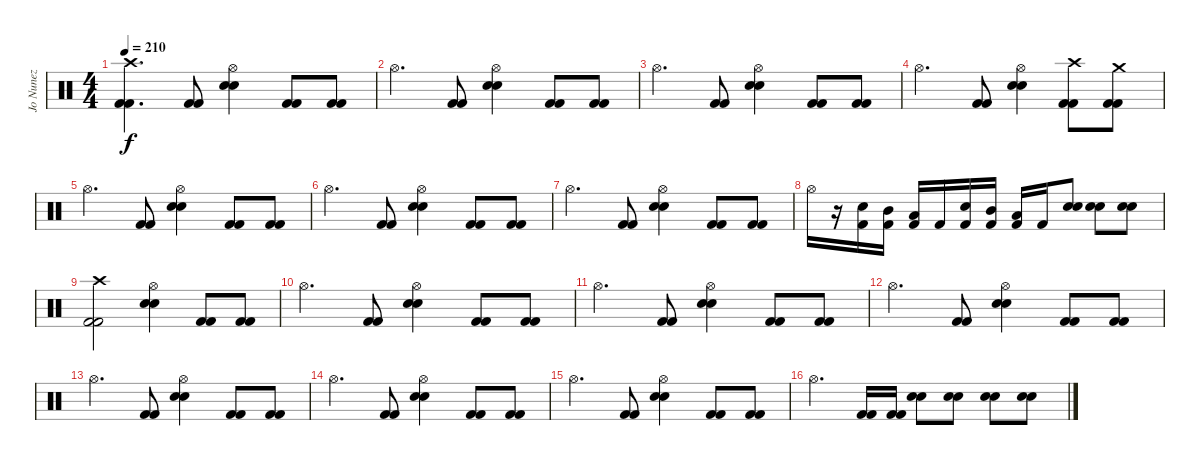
\track ("Jo Nunez" "Jo Nunez") {instrument percussion}
\staff {score}
\articulation defaults
\ts (4 4)
\tempo 210
\clef neutral
\ks c
("Kick (hit) 2" "Kick (hit) 2" "Crash high (hit)").4{d dy f} ("Kick (hit) 2" "Kick (hit) 2").8 ("Electric Snare (hit)" "Electric Snare (hit)" "Hi-Hat (open)").4 ("Kick (hit) 2" "Kick (hit) 2").8 ("Kick (hit) 2" "Kick (hit) 2").8 |
"Hi-Hat (open)".4{d} ("Kick (hit) 2" "Kick (hit) 2").8 ("Electric Snare (hit)" "Electric Snare (hit)" "Hi-Hat (open)").4 ("Kick (hit) 2" "Kick (hit) 2").8 ("Kick (hit) 2" "Kick (hit) 2").8 |
"Hi-Hat (open)".4{d} ("Kick (hit) 2" "Kick (hit) 2").8 ("Electric Snare (hit)" "Electric Snare (hit)" "Hi-Hat (open)").4 ("Kick (hit) 2" "Kick (hit) 2").8 ("Kick (hit) 2" "Kick (hit) 2").8 |
"Hi-Hat (open)".4{d} ("Kick (hit) 2" "Kick (hit) 2").8 ("Electric Snare (hit)" "Electric Snare (hit)" "Hi-Hat (open)").4 ("Kick (hit) 2" "Kick (hit) 2" "Crash high (hit)").8 ("Kick (hit) 2" "Kick (hit) 2" "Crash medium (hit)").8 |
"Hi-Hat (open)".4{d} ("Kick (hit) 2" "Kick (hit) 2").8 ("Electric Snare (hit)" "Electric Snare (hit)" "Hi-Hat (open)").4 ("Kick (hit) 2" "Kick (hit) 2").8 ("Kick (hit) 2" "Kick (hit) 2").8 |
"Hi-Hat (open)".4{d} ("Kick (hit) 2" "Kick (hit) 2").8 ("Electric Snare (hit)" "Electric Snare (hit)" "Hi-Hat (open)").4 ("Kick (hit) 2" "Kick (hit) 2").8 ("Kick (hit) 2" "Kick (hit) 2").8 |
"Hi-Hat (open)".4{d} ("Kick (hit) 2" "Kick (hit) 2").8 ("Electric Snare (hit)" "Electric Snare (hit)" "Hi-Hat (open)").4 ("Kick (hit) 2" "Kick (hit) 2").8 ("Kick (hit) 2" "Kick (hit) 2").8 |
"Hi-Hat (open)".16 r.16 ("Kick (hit) 2" "Electric Snare (hit)").16 ("Kick (hit) 2" "Mid Tom (hit)").16 ("Kick (hit) 2" "Low Tom (hit)").16 "Kick (hit) 2".16 ("Kick (hit) 2" "Electric Snare (hit)").16 ("Kick (hit) 2" "Mid Tom (hit)").16 ("Kick (hit) 2" "Low Tom (hit)").16 "Kick (hit) 2".16 ("Electric Snare (hit)" "Electric Snare (hit)").8 ("Electric Snare (hit)" "Electric Snare (hit)").8 ("Electric Snare (hit)" "Electric Snare (hit)").8 |
("Kick (hit) 2" "Kick (hit) 2" "Crash high (hit)").2 ("Electric Snare (hit)" "Electric Snare (hit)" "Hi-Hat (open)").4 ("Kick (hit) 2" "Kick (hit) 2").8 ("Kick (hit) 2" "Kick (hit) 2").8 |
"Hi-Hat (open)".4{d} ("Kick (hit) 2" "Kick (hit) 2").8 ("Electric Snare (hit)" "Electric Snare (hit)" "Hi-Hat (open)").4 ("Kick (hit) 2" "Kick (hit) 2").8 ("Kick (hit) 2" "Kick (hit) 2").8 |
"Hi-Hat (open)".4{d} ("Kick (hit) 2" "Kick (hit) 2").8 ("Electric Snare (hit)" "Electric Snare (hit)" "Hi-Hat (open)").4 ("Kick (hit) 2" "Kick (hit) 2").8 ("Kick (hit) 2" "Kick (hit) 2").8 |
"Hi-Hat (open)".4{d} ("Kick (hit) 2" "Kick (hit) 2").8 ("Electric Snare (hit)" "Electric Snare (hit)" "Hi-Hat (open)").4 ("Kick (hit) 2" "Kick (hit) 2").8 ("Kick (hit) 2" "Kick (hit) 2").8 |
"Hi-Hat (open)".4{d} ("Kick (hit) 2" "Kick (hit) 2").8 ("Electric Snare (hit)" "Electric Snare (hit)" "Hi-Hat (open)").4 ("Kick (hit) 2" "Kick (hit) 2").8 ("Kick (hit) 2" "Kick (hit) 2").8 |
"Hi-Hat (open)".4{d} ("Kick (hit) 2" "Kick (hit) 2").8 ("Electric Snare (hit)" "Electric Snare (hit)" "Hi-Hat (open)").4 ("Kick (hit) 2" "Kick (hit) 2").8 ("Kick (hit) 2" "Kick (hit) 2").8 |
"Hi-Hat (open)".4{d} ("Kick (hit) 2" "Kick (hit) 2").8 ("Electric Snare (hit)" "Electric Snare (hit)" "Hi-Hat (open)").4 ("Kick (hit) 2" "Kick (hit) 2").8 ("Kick (hit) 2" "Kick (hit) 2").8 |
"Hi-Hat (open)".4{d} ("Kick (hit) 2" "Kick (hit) 2").16 ("Kick (hit) 2" "Kick (hit) 2").16 ("Electric Snare (hit)" "Electric Snare (hit)").8 ("Electric Snare (hit)" "Electric Snare (hit)").8 ("Electric Snare (hit)" "Electric Snare (hit)").8 ("Electric Snare (hit)" "Electric Snare (hit)").8
